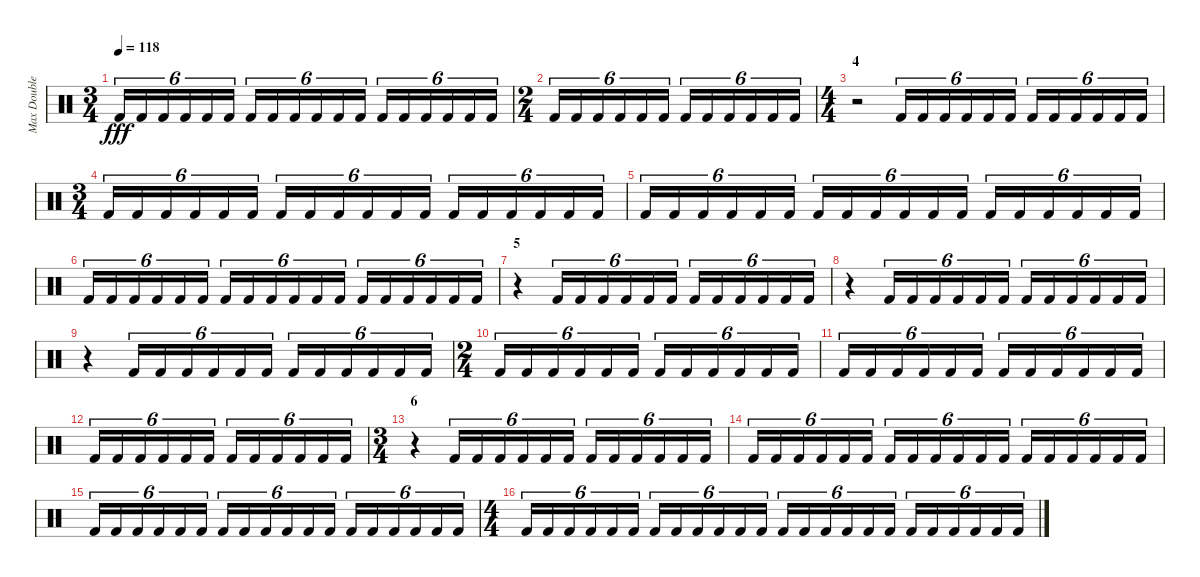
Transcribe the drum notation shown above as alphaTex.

\track ("Max Double Pedal" "Max Double") {instrument percussion}
\staff {score}
\articulation defaults
\ts (3 4)
\tempo 118
\clef neutral
\ks c "Kick (hit) 2".16{tu (6 4) dy fff} "Kick (hit) 2".16{tu (6 4)} "Kick (hit) 2".16{tu (6 4)} "Kick (hit) 2".16{tu (6 4)} "Kick (hit) 2".16{tu (6 4)} "Kick (hit) 2".16{tu (6 4)} "Kick (hit) 2".16{tu (6 4)} "Kick (hit) 2".16{tu (6 4)} "Kick (hit) 2".16{tu (6 4)} "Kick (hit) 2".16{tu (6 4)} "Kick (hit) 2".16{tu (6 4)} "Kick (hit) 2".16{tu (6 4)} "Kick (hit) 2".16{tu (6 4)} "Kick (hit) 2".16{tu (6 4)} "Kick (hit) 2".16{tu (6 4)} "Kick (hit) 2".16{tu (6 4)} "Kick (hit) 2".16{tu (6 4)} "Kick (hit) 2".16{tu (6 4)}
|
\ts (2 4)
"Kick (hit) 2".16{tu (6 4)} "Kick (hit) 2".16{tu (6 4)} "Kick (hit) 2".16{tu (6 4)} "Kick (hit) 2".16{tu (6 4)} "Kick (hit) 2".16{tu (6 4)} "Kick (hit) 2".16{tu (6 4)} "Kick (hit) 2".16{tu (6 4)} "Kick (hit) 2".16{tu (6 4)} "Kick (hit) 2".16{tu (6 4)} "Kick (hit) 2".16{tu (6 4)} "Kick (hit) 2".16{tu (6 4)} "Kick (hit) 2".16{tu (6 4)} |
\ts (4 4)
\section ("" "4")
r.2 "Kick (hit) 2".16{tu (6 4)} "Kick (hit) 2".16{tu (6 4)} "Kick (hit) 2".16{tu (6 4)} "Kick (hit) 2".16{tu (6 4)} "Kick (hit) 2".16{tu (6 4)} "Kick (hit) 2".16{tu (6 4)} "Kick (hit) 2".16{tu (6 4)} "Kick (hit) 2".16{tu (6 4)} "Kick (hit) 2".16{tu (6 4)} "Kick (hit) 2".16{tu (6 4)} "Kick (hit) 2".16{tu (6 4)} "Kick (hit) 2".16{tu (6 4)} |
\ts (3 4)
"Kick (hit) 2".16{tu (6 4)} "Kick (hit) 2".16{tu (6 4)} "Kick (hit) 2".16{tu (6 4)} "Kick (hit) 2".16{tu (6 4)} "Kick (hit) 2".16{tu (6 4)} "Kick (hit) 2".16{tu (6 4)} "Kick (hit) 2".16{tu (6 4)} "Kick (hit) 2".16{tu (6 4)} "Kick (hit) 2".16{tu (6 4)} "Kick (hit) 2".16{tu (6 4)} "Kick (hit) 2".16{tu (6 4)} "Kick (hit) 2".16{tu (6 4)} "Kick (hit) 2".16{tu (6 4)} "Kick (hit) 2".16{tu (6 4)} "Kick (hit) 2".16{tu (6 4)} "Kick (hit) 2".16{tu (6 4)} "Kick (hit) 2".16{tu (6 4)} "Kick (hit) 2".16{tu (6 4)} |
"Kick (hit) 2".16{tu (6 4)} "Kick (hit) 2".16{tu (6 4)} "Kick (hit) 2".16{tu (6 4)} "Kick (hit) 2".16{tu (6 4)} "Kick (hit) 2".16{tu (6 4)} "Kick (hit) 2".16{tu (6 4)} "Kick (hit) 2".16{tu (6 4)} "Kick (hit) 2".16{tu (6 4)} "Kick (hit) 2".16{tu (6 4)} "Kick (hit) 2".16{tu (6 4)} "Kick (hit) 2".16{tu (6 4)} "Kick (hit) 2".16{tu (6 4)} "Kick (hit) 2".16{tu (6 4)} "Kick (hit) 2".16{tu (6 4)} "Kick (hit) 2".16{tu (6 4)} "Kick (hit) 2".16{tu (6 4)} "Kick (hit) 2".16{tu (6 4)} "Kick (hit) 2".16{tu (6 4)} |
"Kick (hit) 2".16{tu (6 4)} "Kick (hit) 2".16{tu (6 4)} "Kick (hit) 2".16{tu (6 4)} "Kick (hit) 2".16{tu (6 4)} "Kick (hit) 2".16{tu (6 4)} "Kick (hit) 2".16{tu (6 4)} "Kick (hit) 2".16{tu (6 4)} "Kick (hit) 2".16{tu (6 4)} "Kick (hit) 2".16{tu (6 4)} "Kick (hit) 2".16{tu (6 4)} "Kick (hit) 2".16{tu (6 4)} "Kick (hit) 2".16{tu (6 4)} "Kick (hit) 2".16{tu (6 4)} "Kick (hit) 2".16{tu (6 4)} "Kick (hit) 2".16{tu (6 4)} "Kick (hit) 2".16{tu (6 4)} "Kick (hit) 2".16{tu (6 4)} "Kick (hit) 2".16{tu (6 4)} |
\section ("" "5")
r.4 "Kick (hit) 2".16{tu (6 4)} "Kick (hit) 2".16{tu (6 4)} "Kick (hit) 2".16{tu (6 4)} "Kick (hit) 2".16{tu (6 4)} "Kick (hit) 2".16{tu (6 4)} "Kick (hit) 2".16{tu (6 4)} "Kick (hit) 2".16{tu (6 4)} "Kick (hit) 2".16{tu (6 4)} "Kick (hit) 2".16{tu (6 4)} "Kick (hit) 2".16{tu (6 4)} "Kick (hit) 2".16{tu (6 4)} "Kick (hit) 2".16{tu (6 4)} |
r.4 "Kick (hit) 2".16{tu (6 4)} "Kick (hit) 2".16{tu (6 4)} "Kick (hit) 2".16{tu (6 4)} "Kick (hit) 2".16{tu (6 4)} "Kick (hit) 2".16{tu (6 4)} "Kick (hit) 2".16{tu (6 4)} "Kick (hit) 2".16{tu (6 4)} "Kick (hit) 2".16{tu (6 4)} "Kick (hit) 2".16{tu (6 4)} "Kick (hit) 2".16{tu (6 4)} "Kick (hit) 2".16{tu (6 4)} "Kick (hit) 2".16{tu (6 4)} |
r.4 "Kick (hit) 2".16{tu (6 4)} "Kick (hit) 2".16{tu (6 4)} "Kick (hit) 2".16{tu (6 4)} "Kick (hit) 2".16{tu (6 4)} "Kick (hit) 2".16{tu (6 4)} "Kick (hit) 2".16{tu (6 4)} "Kick (hit) 2".16{tu (6 4)} "Kick (hit) 2".16{tu (6 4)} "Kick (hit) 2".16{tu (6 4)} "Kick (hit) 2".16{tu (6 4)} "Kick (hit) 2".16{tu (6 4)} "Kick (hit) 2".16{tu (6 4)} |
\ts (2 4)
"Kick (hit) 2".16{tu (6 4)} "Kick (hit) 2".16{tu (6 4)} "Kick (hit) 2".16{tu (6 4)} "Kick (hit) 2".16{tu (6 4)} "Kick (hit) 2".16{tu (6 4)} "Kick (hit) 2".16{tu (6 4)} "Kick (hit) 2".16{tu (6 4)} "Kick (hit) 2".16{tu (6 4)} "Kick (hit) 2".16{tu (6 4)} "Kick (hit) 2".16{tu (6 4)} "Kick (hit) 2".16{tu (6 4)} "Kick (hit) 2".16{tu (6 4)} |
"Kick (hit) 2".16{tu (6 4)} "Kick (hit) 2".16{tu (6 4)} "Kick (hit) 2".16{tu (6 4)} "Kick (hit) 2".16{tu (6 4)} "Kick (hit) 2".16{tu (6 4)} "Kick (hit) 2".16{tu (6 4)} "Kick (hit) 2".16{tu (6 4)} "Kick (hit) 2".16{tu (6 4)} "Kick (hit) 2".16{tu (6 4)} "Kick (hit) 2".16{tu (6 4)} "Kick (hit) 2".16{tu (6 4)} "Kick (hit) 2".16{tu (6 4)} |
"Kick (hit) 2".16{tu (6 4)} "Kick (hit) 2".16{tu (6 4)} "Kick (hit) 2".16{tu (6 4)} "Kick (hit) 2".16{tu (6 4)} "Kick (hit) 2".16{tu (6 4)} "Kick (hit) 2".16{tu (6 4)} "Kick (hit) 2".16{tu (6 4)} "Kick (hit) 2".16{tu (6 4)} "Kick (hit) 2".16{tu (6 4)} "Kick (hit) 2".16{tu (6 4)} "Kick (hit) 2".16{tu (6 4)} "Kick (hit) 2".16{tu (6 4)} |
\ts (3 4)
\section ("" "6")
r.4 "Kick (hit) 2".16{tu (6 4)} "Kick (hit) 2".16{tu (6 4)} "Kick (hit) 2".16{tu (6 4)} "Kick (hit) 2".16{tu (6 4)} "Kick (hit) 2".16{tu (6 4)} "Kick (hit) 2".16{tu (6 4)} "Kick (hit) 2".16{tu (6 4)} "Kick (hit) 2".16{tu (6 4)} "Kick (hit) 2".16{tu (6 4)} "Kick (hit) 2".16{tu (6 4)} "Kick (hit) 2".16{tu (6 4)} "Kick (hit) 2".16{tu (6 4)} |
"Kick (hit) 2".16{tu (6 4)} "Kick (hit) 2".16{tu (6 4)} "Kick (hit) 2".16{tu (6 4)} "Kick (hit) 2".16{tu (6 4)} "Kick (hit) 2".16{tu (6 4)} "Kick (hit) 2".16{tu (6 4)} "Kick (hit) 2".16{tu (6 4)} "Kick (hit) 2".16{tu (6 4)} "Kick (hit) 2".16{tu (6 4)} "Kick (hit) 2".16{tu (6 4)} "Kick (hit) 2".16{tu (6 4)} "Kick (hit) 2".16{tu (6 4)} "Kick (hit) 2".16{tu (6 4)} "Kick (hit) 2".16{tu (6 4)} "Kick (hit) 2".16{tu (6 4)} "Kick (hit) 2".16{tu (6 4)} "Kick (hit) 2".16{tu (6 4)} "Kick (hit) 2".16{tu (6 4)} |
"Kick (hit) 2".16{tu (6 4)} "Kick (hit) 2".16{tu (6 4)} "Kick (hit) 2".16{tu (6 4)} "Kick (hit) 2".16{tu (6 4)} "Kick (hit) 2".16{tu (6 4)} "Kick (hit) 2".16{tu (6 4)} "Kick (hit) 2".16{tu (6 4)} "Kick (hit) 2".16{tu (6 4)} "Kick (hit) 2".16{tu (6 4)} "Kick (hit) 2".16{tu (6 4)} "Kick (hit) 2".16{tu (6 4)} "Kick (hit) 2".16{tu (6 4)} "Kick (hit) 2".16{tu (6 4)} "Kick (hit) 2".16{tu (6 4)} "Kick (hit) 2".16{tu (6 4)} "Kick (hit) 2".16{tu (6 4)} "Kick (hit) 2".16{tu (6 4)} "Kick (hit) 2".16{tu (6 4)} |
\ts (4 4)
"Kick (hit) 2".16{tu (6 4)} "Kick (hit) 2".16{tu (6 4)} "Kick (hit) 2".16{tu (6 4)} "Kick (hit) 2".16{tu (6 4)} "Kick (hit) 2".16{tu (6 4)} "Kick (hit) 2".16{tu (6 4)} "Kick (hit) 2".16{tu (6 4)} "Kick (hit) 2".16{tu (6 4)} "Kick (hit) 2".16{tu (6 4)} "Kick (hit) 2".16{tu (6 4)} "Kick (hit) 2".16{tu (6 4)} "Kick (hit) 2".16{tu (6 4)} "Kick (hit) 2".16{tu (6 4)} "Kick (hit) 2".16{tu (6 4)} "Kick (hit) 2".16{tu (6 4)} "Kick (hit) 2".16{tu (6 4)} "Kick (hit) 2".16{tu (6 4)} "Kick (hit) 2".16{tu (6 4)} "Kick (hit) 2".16{tu (6 4)} "Kick (hit) 2".16{tu (6 4)} "Kick (hit) 2".16{tu (6 4)} "Kick (hit) 2".16{tu (6 4)} "Kick (hit) 2".16{tu (6 4)} "Kick (hit) 2".16{tu (6 4)}
